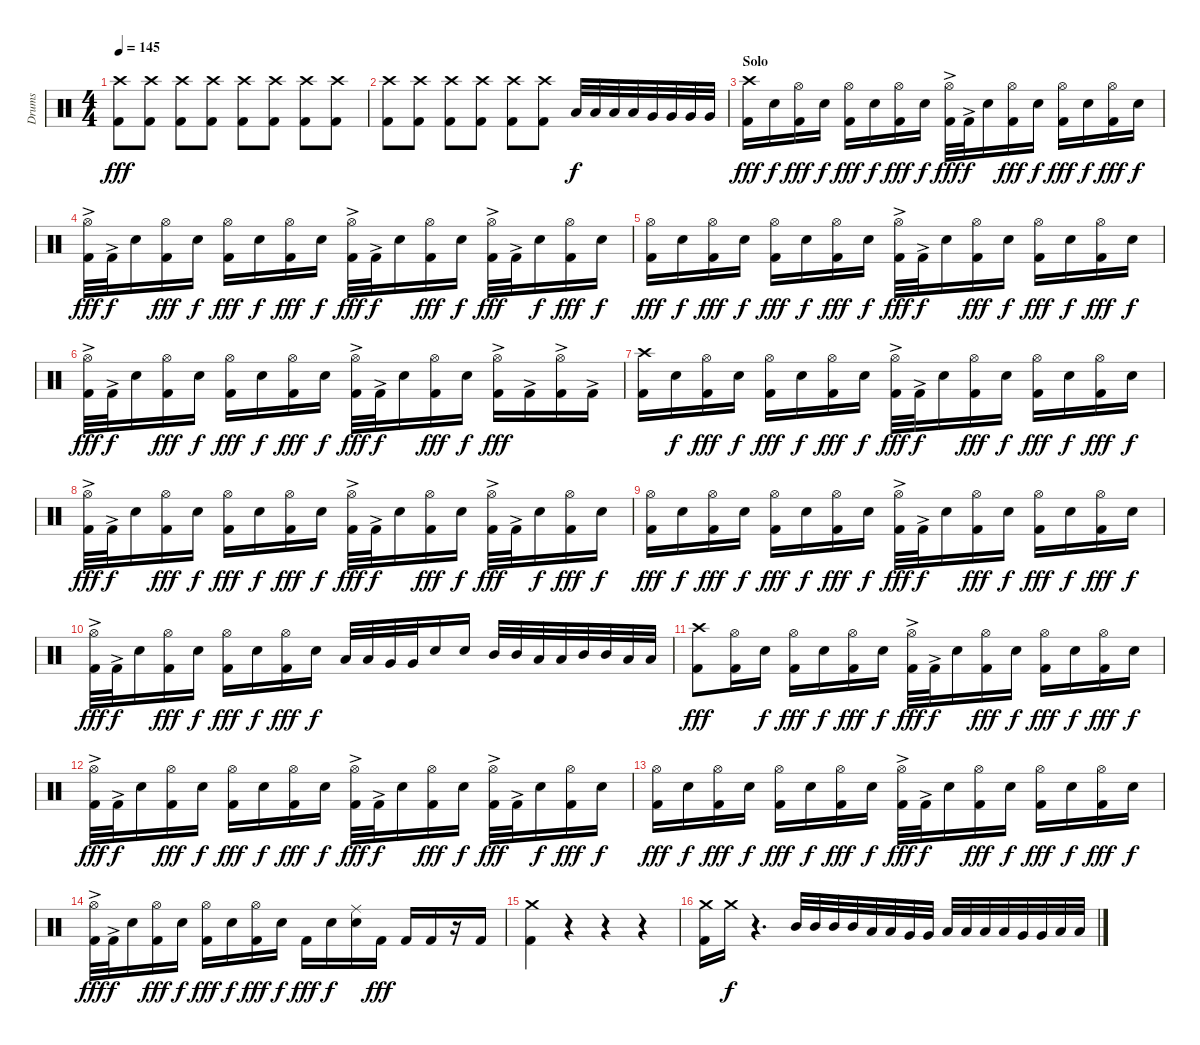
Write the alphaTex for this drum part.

\track ("Drums" "Drums") {instrument percussion}
\staff {score}
\articulation defaults
\ts (4 4)
\tempo 145
\clef neutral
\ks c
("Crash high (hit)" "Kick (hit) 2").8{dy fff} ("Crash high (hit)" "Kick (hit) 2").8 ("Crash high (hit)" "Kick (hit) 2").8 ("Crash high (hit)" "Kick (hit) 2").8 ("Crash high (hit)" "Kick (hit) 2").8 ("Crash high (hit)" "Kick (hit) 2").8 ("Crash high (hit)" "Kick (hit) 2").8 ("Crash high (hit)" "Kick (hit) 2").8 |
("Crash high (hit)" "Kick (hit) 2").8 ("Crash high (hit)" "Kick (hit) 2").8 ("Crash high (hit)" "Kick (hit) 2").8 ("Crash high (hit)" "Kick (hit) 2").8 ("Crash high (hit)" "Kick (hit) 2").8 ("Crash high (hit)" "Kick (hit) 2").8 "Low Tom (hit)".32{dy f} "Low Tom (hit)".32 "Low Tom (hit)".32 "Low Tom (hit)".32 "Very Low Tom (hit)".32 "Very Low Tom (hit)".32 "Very Low Tom (hit)".32 "Very Low Tom (hit)".32 |
\section ("" "Solo")
("Crash high (hit)" "Kick (hit) 2").16{dy fff} "Electric Snare (hit)".16{dy f} ("Hi-Hat (open)" "Kick (hit) 2").16{dy fff} "Electric Snare (hit)".16{dy f} ("Hi-Hat (open)" "Kick (hit) 2").16{dy fff} "Electric Snare (hit)".16{dy f} ("Hi-Hat (open)" "Kick (hit) 2").16{dy fff} "Electric Snare (hit)".16{dy f} ("Hi-Hat (open)" "Kick (hit) 2"{ac}).32{dy fff} "Kick (hit) 2"{ac}.32{dy f} "Electric Snare (hit)".16 ("Hi-Hat (open)" "Kick (hit) 2").16{dy fff} "Electric Snare (hit)".16{dy f} ("Hi-Hat (open)" "Kick (hit) 2").16{dy fff} "Electric Snare (hit)".16{dy f} ("Hi-Hat (open)" "Kick (hit) 2").16{dy fff} "Electric Snare (hit)".16{dy f} |
("Hi-Hat (open)" "Kick (hit) 2"{ac}).32{dy fff} "Kick (hit) 2"{ac}.32{dy f} "Electric Snare (hit)".16 ("Hi-Hat (open)" "Kick (hit) 2").16{dy fff} "Electric Snare (hit)".16{dy f} ("Hi-Hat (open)" "Kick (hit) 2").16{dy fff} "Electric Snare (hit)".16{dy f} ("Hi-Hat (open)" "Kick (hit) 2").16{dy fff} "Electric Snare (hit)".16{dy f} ("Hi-Hat (open)" "Kick (hit) 2"{ac}).32{dy fff} "Kick (hit) 2"{ac}.32{dy f} "Electric Snare (hit)".16 ("Hi-Hat (open)" "Kick (hit) 2").16{dy fff} "Electric Snare (hit)".16{dy f} ("Hi-Hat (open)" "Kick (hit) 2"{ac}).32{dy fff} "Kick (hit) 2"{ac}.32 "Electric Snare (hit)".16{dy f} ("Hi-Hat (open)" "Kick (hit) 2").16{dy fff} "Electric Snare (hit)".16{dy f} |
("Hi-Hat (open)" "Kick (hit) 2").16{dy fff} "Electric Snare (hit)".16{dy f} ("Hi-Hat (open)" "Kick (hit) 2").16{dy fff} "Electric Snare (hit)".16{dy f} ("Hi-Hat (open)" "Kick (hit) 2").16{dy fff} "Electric Snare (hit)".16{dy f} ("Hi-Hat (open)" "Kick (hit) 2").16{dy fff} "Electric Snare (hit)".16{dy f} ("Hi-Hat (open)" "Kick (hit) 2"{ac}).32{dy fff} "Kick (hit) 2"{ac}.32{dy f} "Electric Snare (hit)".16 ("Hi-Hat (open)" "Kick (hit) 2").16{dy fff} "Electric Snare (hit)".16{dy f} ("Hi-Hat (open)" "Kick (hit) 2").16{dy fff} "Electric Snare (hit)".16{dy f} ("Hi-Hat (open)" "Kick (hit) 2").16{dy fff} "Electric Snare (hit)".16{dy f} |
("Hi-Hat (open)" "Kick (hit) 2"{ac}).32{dy fff} "Kick (hit) 2"{ac}.32{dy f} "Electric Snare (hit)".16 ("Hi-Hat (open)" "Kick (hit) 2").16{dy fff} "Electric Snare (hit)".16{dy f} ("Hi-Hat (open)" "Kick (hit) 2").16{dy fff} "Electric Snare (hit)".16{dy f} ("Hi-Hat (open)" "Kick (hit) 2").16{dy fff} "Electric Snare (hit)".16{dy f} ("Hi-Hat (open)" "Kick (hit) 2"{ac}).32{dy fff} "Kick (hit) 2"{ac}.32{dy f} "Electric Snare (hit)".16 ("Hi-Hat (open)" "Kick (hit) 2").16{dy fff} "Electric Snare (hit)".16{dy f} ("Hi-Hat (open)" "Kick (hit) 2"{ac}).16{dy fff} "Kick (hit) 2"{ac}.16 ("Hi-Hat (open)" "Kick (hit) 2"{ac}).16 "Kick (hit) 2"{ac}.16 |
("Crash high (hit)" "Kick (hit) 2").16 "Electric Snare (hit)".16{dy f} ("Hi-Hat (open)" "Kick (hit) 2").16{dy fff} "Electric Snare (hit)".16{dy f} ("Hi-Hat (open)" "Kick (hit) 2").16{dy fff} "Electric Snare (hit)".16{dy f} ("Hi-Hat (open)" "Kick (hit) 2").16{dy fff} "Electric Snare (hit)".16{dy f} ("Hi-Hat (open)" "Kick (hit) 2"{ac}).32{dy fff} "Kick (hit) 2"{ac}.32{dy f} "Electric Snare (hit)".16 ("Hi-Hat (open)" "Kick (hit) 2").16{dy fff} "Electric Snare (hit)".16{dy f} ("Hi-Hat (open)" "Kick (hit) 2").16{dy fff} "Electric Snare (hit)".16{dy f} ("Hi-Hat (open)" "Kick (hit) 2").16{dy fff} "Electric Snare (hit)".16{dy f} |
("Hi-Hat (open)" "Kick (hit) 2"{ac}).32{dy fff} "Kick (hit) 2"{ac}.32{dy f} "Electric Snare (hit)".16 ("Hi-Hat (open)" "Kick (hit) 2").16{dy fff} "Electric Snare (hit)".16{dy f} ("Hi-Hat (open)" "Kick (hit) 2").16{dy fff} "Electric Snare (hit)".16{dy f} ("Hi-Hat (open)" "Kick (hit) 2").16{dy fff} "Electric Snare (hit)".16{dy f} ("Hi-Hat (open)" "Kick (hit) 2"{ac}).32{dy fff} "Kick (hit) 2"{ac}.32{dy f} "Electric Snare (hit)".16 ("Hi-Hat (open)" "Kick (hit) 2").16{dy fff} "Electric Snare (hit)".16{dy f} ("Hi-Hat (open)" "Kick (hit) 2"{ac}).32{dy fff} "Kick (hit) 2"{ac}.32 "Electric Snare (hit)".16{dy f} ("Hi-Hat (open)" "Kick (hit) 2").16{dy fff} "Electric Snare (hit)".16{dy f} |
("Hi-Hat (open)" "Kick (hit) 2").16{dy fff} "Electric Snare (hit)".16{dy f} ("Hi-Hat (open)" "Kick (hit) 2").16{dy fff} "Electric Snare (hit)".16{dy f} ("Hi-Hat (open)" "Kick (hit) 2").16{dy fff} "Electric Snare (hit)".16{dy f} ("Hi-Hat (open)" "Kick (hit) 2").16{dy fff} "Electric Snare (hit)".16{dy f} ("Hi-Hat (open)" "Kick (hit) 2"{ac}).32{dy fff} "Kick (hit) 2"{ac}.32{dy f} "Electric Snare (hit)".16 ("Hi-Hat (open)" "Kick (hit) 2").16{dy fff} "Electric Snare (hit)".16{dy f} ("Hi-Hat (open)" "Kick (hit) 2").16{dy fff} "Electric Snare (hit)".16{dy f} ("Hi-Hat (open)" "Kick (hit) 2").16{dy fff} "Electric Snare (hit)".16{dy f} |
("Hi-Hat (open)" "Kick (hit) 2"{ac}).32{dy fff} "Kick (hit) 2"{ac}.32{dy f} "Electric Snare (hit)".16 ("Hi-Hat (open)" "Kick (hit) 2").16{dy fff} "Electric Snare (hit)".16{dy f} ("Hi-Hat (open)" "Kick (hit) 2").16{dy fff} "Electric Snare (hit)".16{dy f} ("Hi-Hat (open)" "Kick (hit) 2").16{dy fff} "Electric Snare (hit)".16{dy f} "Low Tom (hit)".32 "Low Tom (hit)".32 "Very Low Tom (hit)".32 "Very Low Tom (hit)".32 "Electric Snare (hit)".16 "Electric Snare (hit)".16 "Mid Tom (hit)".32 "Mid Tom (hit)".32 "Low Tom (hit)".32 "Low Tom (hit)".32 "Mid Tom (hit)".32 "Mid Tom (hit)".32 "Low Tom (hit)".32 "Low Tom (hit)".32 |
("Crash high (hit)" "Kick (hit) 2").8{dy fff} ("Hi-Hat (open)" "Kick (hit) 2").16 "Electric Snare (hit)".16{dy f} ("Hi-Hat (open)" "Kick (hit) 2").16{dy fff} "Electric Snare (hit)".16{dy f} ("Hi-Hat (open)" "Kick (hit) 2").16{dy fff} "Electric Snare (hit)".16{dy f} ("Hi-Hat (open)" "Kick (hit) 2"{ac}).32{dy fff} "Kick (hit) 2"{ac}.32{dy f} "Electric Snare (hit)".16 ("Hi-Hat (open)" "Kick (hit) 2").16{dy fff} "Electric Snare (hit)".16{dy f} ("Hi-Hat (open)" "Kick (hit) 2").16{dy fff} "Electric Snare (hit)".16{dy f} ("Hi-Hat (open)" "Kick (hit) 2").16{dy fff} "Electric Snare (hit)".16{dy f} |
("Hi-Hat (open)" "Kick (hit) 2"{ac}).32{dy fff} "Kick (hit) 2"{ac}.32{dy f} "Electric Snare (hit)".16 ("Hi-Hat (open)" "Kick (hit) 2").16{dy fff} "Electric Snare (hit)".16{dy f} ("Hi-Hat (open)" "Kick (hit) 2").16{dy fff} "Electric Snare (hit)".16{dy f} ("Hi-Hat (open)" "Kick (hit) 2").16{dy fff} "Electric Snare (hit)".16{dy f} ("Hi-Hat (open)" "Kick (hit) 2"{ac}).32{dy fff} "Kick (hit) 2"{ac}.32{dy f} "Electric Snare (hit)".16 ("Hi-Hat (open)" "Kick (hit) 2").16{dy fff} "Electric Snare (hit)".16{dy f} ("Hi-Hat (open)" "Kick (hit) 2"{ac}).32{dy fff} "Kick (hit) 2"{ac}.32 "Electric Snare (hit)".16{dy f} ("Hi-Hat (open)" "Kick (hit) 2").16{dy fff} "Electric Snare (hit)".16{dy f} |
("Hi-Hat (open)" "Kick (hit) 2").16{dy fff} "Electric Snare (hit)".16{dy f} ("Hi-Hat (open)" "Kick (hit) 2").16{dy fff} "Electric Snare (hit)".16{dy f} ("Hi-Hat (open)" "Kick (hit) 2").16{dy fff} "Electric Snare (hit)".16{dy f} ("Hi-Hat (open)" "Kick (hit) 2").16{dy fff} "Electric Snare (hit)".16{dy f} ("Hi-Hat (open)" "Kick (hit) 2"{ac}).32{dy fff} "Kick (hit) 2"{ac}.32{dy f} "Electric Snare (hit)".16 ("Hi-Hat (open)" "Kick (hit) 2").16{dy fff} "Electric Snare (hit)".16{dy f} ("Hi-Hat (open)" "Kick (hit) 2").16{dy fff} "Electric Snare (hit)".16{dy f} ("Hi-Hat (open)" "Kick (hit) 2").16{dy fff} "Electric Snare (hit)".16{dy f} |
("Hi-Hat (open)" "Kick (hit) 2"{ac}).32{dy fff} "Kick (hit) 2"{ac}.32{dy f} "Electric Snare (hit)".16 ("Hi-Hat (open)" "Kick (hit) 2").16{dy fff} "Electric Snare (hit)".16{dy f} ("Hi-Hat (open)" "Kick (hit) 2").16{dy fff} "Electric Snare (hit)".16{dy f} ("Hi-Hat (open)" "Kick (hit) 2").16{dy fff} "Electric Snare (hit)".16{dy f} "Kick (hit) 2".16{dy fff} "Electric Snare (hit)".16{dy f} ("Ride (middle)" "Electric Snare (hit)").16 "Kick (hit) 2".16{dy fff} "Kick (hit) 2".16 "Kick (hit) 2".16 r.16 "Kick (hit) 2".16 |
("Crash medium (hit)" "Kick (hit) 2").4 r.4 r.4 r.4 |
("Crash medium (hit)" "Kick (hit) 2").16 "Crash medium (hit)".16{dy f} r.4{d} "Mid Tom (hit)".32 "Mid Tom (hit)".32 "Mid Tom (hit)".32 "Mid Tom (hit)".32 "Low Tom (hit)".32 "Low Tom (hit)".32 "Very Low Tom (hit)".32 "Very Low Tom (hit)".32 "Low Tom (hit)".32 "Low Tom (hit)".32 "Low Tom (hit)".32 "Low Tom (hit)".32 "Very Low Tom (hit)".32 "Very Low Tom (hit)".32 "Low Floor Tom (hit)".32 "Low Floor Tom (hit)".32
